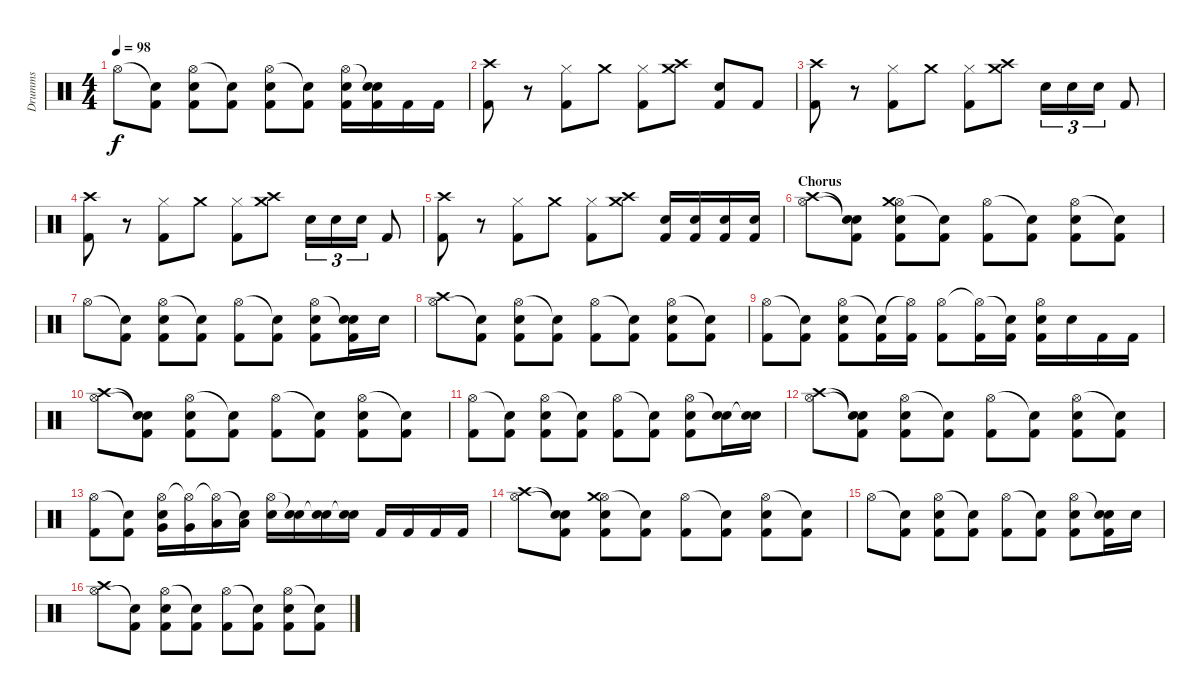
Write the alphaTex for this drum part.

\track ("Drumms" "Drumms") {instrument percussion}
\staff {score}
\articulation defaults
\ts (4 4)
\tempo 98
\clef neutral
\ks c "Hi-Hat (open)".8{dy f volume 13}
("Snare (hit)"{t} "Kick (hit) 2").8 ("Hi-Hat (open)" "Electric Snare (hit)" "Kick (hit) 2").8 ("Snare (hit)"{t} "Kick (hit) 2").8 ("Hi-Hat (open)" "Electric Snare (hit)" "Kick (hit) 2").8 ("Snare (hit)"{t} "Kick (hit) 2").8 ("Hi-Hat (open)" "Electric Snare (hit)" "Kick (hit) 2").16 ("Snare (hit)"{t} "Electric Snare (hit)" "Kick (hit) 2").16 "Kick (hit) 2".16 "Kick (hit) 2".16 |
("Crash high (hit)" "Kick (hit) 2").8 r.8 ("Hi-Hat (closed)" "Kick (hit) 2").8 "Crash medium (hit)".8 ("Hi-Hat (closed)" "Kick (hit) 2").8 ("Crash medium (hit)" "Crash high (hit)").8 ("Electric Snare (hit)" "Kick (hit) 2").8 "Kick (hit) 2".8 |
("Crash high (hit)" "Kick (hit) 2").8 r.8 ("Hi-Hat (closed)" "Kick (hit) 2").8 "Crash medium (hit)".8 ("Hi-Hat (closed)" "Kick (hit) 2").8 ("Crash medium (hit)" "Crash high (hit)").8 "Electric Snare (hit)".16{tu (3 2)} "Electric Snare (hit)".16{tu (3 2)} "Electric Snare (hit)".16{tu (3 2)} "Kick (hit) 2".8 |
("Crash high (hit)" "Kick (hit) 2").8 r.8 ("Hi-Hat (closed)" "Kick (hit) 2").8 "Crash medium (hit)".8 ("Hi-Hat (closed)" "Kick (hit) 2").8 ("Crash medium (hit)" "Crash high (hit)").8 "Electric Snare (hit)".16{tu (3 2)} "Electric Snare (hit)".16{tu (3 2)} "Electric Snare (hit)".16{tu (3 2)} "Kick (hit) 2".8 |
("Crash high (hit)" "Kick (hit) 2").8 r.8 ("Hi-Hat (closed)" "Kick (hit) 2").8 "Crash medium (hit)".8 ("Hi-Hat (closed)" "Kick (hit) 2").8 ("Crash medium (hit)" "Crash high (hit)").8 ("Electric Snare (hit)" "Kick (hit) 2").16 ("Electric Snare (hit)" "Kick (hit) 2").16 ("Electric Snare (hit)" "Kick (hit) 2").16 ("Electric Snare (hit)" "Kick (hit) 2").16 |
\section ("" "Chorus")
("Hi-Hat (open)" "Crash high (hit)").8 ("Snare (hit)"{t} "Snare (hit)"{t} "Kick (hit) 2").8 ("Hi-Hat (open)" "Electric Snare (hit)" "Kick (hit) 2" "Crash medium (hit)").8 ("Snare (hit)"{t} "Kick (hit) 2").8 ("Hi-Hat (open)" "Kick (hit) 2").8 ("Snare (hit)"{t} "Kick (hit) 2").8 ("Hi-Hat (open)" "Electric Snare (hit)" "Kick (hit) 2").8 ("Snare (hit)"{t} "Kick (hit) 2").8 |
"Hi-Hat (open)".8{volume 13} ("Snare (hit)"{t} "Kick (hit) 2").8 ("Hi-Hat (open)" "Electric Snare (hit)" "Kick (hit) 2").8 ("Snare (hit)"{t} "Kick (hit) 2").8 ("Hi-Hat (open)" "Kick (hit) 2").8 ("Snare (hit)"{t} "Kick (hit) 2").8 ("Hi-Hat (open)" "Electric Snare (hit)" "Kick (hit) 2").8 ("Snare (hit)"{t} "Electric Snare (hit)" "Kick (hit) 2").16 "Electric Snare (hit)".16 |
("Hi-Hat (open)" "Crash high (hit)").8{volume 13} ("Snare (hit)"{t} "Kick (hit) 2").8 ("Hi-Hat (open)" "Electric Snare (hit)" "Kick (hit) 2").8 ("Snare (hit)"{t} "Kick (hit) 2").8 ("Hi-Hat (open)" "Kick (hit) 2").8 ("Snare (hit)"{t} "Kick (hit) 2").8 ("Hi-Hat (open)" "Electric Snare (hit)" "Kick (hit) 2").8 ("Snare (hit)"{t} "Kick (hit) 2").8 |
("Hi-Hat (open)" "Kick (hit) 2").8{volume 13} ("Snare (hit)"{t} "Kick (hit) 2").8 ("Hi-Hat (open)" "Electric Snare (hit)" "Kick (hit) 2").8 ("Snare (hit)"{t} "Kick (hit) 2").16 ("Hi-Hat (open)"{t} "Kick (hit) 2").16 ("Hi-Hat (open)" "Kick (hit) 2").8 ("Hi-Hat (open)"{t} "Kick (hit) 2").16 ("Snare (hit)"{t} "Kick (hit) 2").16 ("Hi-Hat (open)" "Electric Snare (hit)" "Kick (hit) 2").16 "Electric Snare (hit)".16 "Kick (hit) 2".16 "Kick (hit) 2".16 |
("Hi-Hat (open)" "Crash high (hit)").8 ("Snare (hit)"{t} "Snare (hit)"{t} "Kick (hit) 2").8 ("Hi-Hat (open)" "Electric Snare (hit)" "Kick (hit) 2").8 ("Snare (hit)"{t} "Kick (hit) 2").8 ("Hi-Hat (open)" "Kick (hit) 2").8 ("Snare (hit)"{t} "Kick (hit) 2").8 ("Hi-Hat (open)" "Electric Snare (hit)" "Kick (hit) 2").8 ("Snare (hit)"{t} "Kick (hit) 2").8 |
("Hi-Hat (open)" "Kick (hit) 2").8{volume 13} ("Snare (hit)"{t} "Kick (hit) 2").8 ("Hi-Hat (open)" "Electric Snare (hit)" "Kick (hit) 2").8 ("Snare (hit)"{t} "Kick (hit) 2").8 ("Hi-Hat (open)" "Kick (hit) 2").8 ("Snare (hit)"{t} "Kick (hit) 2").8 ("Hi-Hat (open)" "Electric Snare (hit)" "Kick (hit) 2").8 ("Snare (hit)"{t} "Electric Snare (hit)").16 ("Snare (hit)"{t} "Electric Snare (hit)").16 |
("Hi-Hat (open)" "Crash high (hit)").8 ("Snare (hit)"{t} "Snare (hit)"{t} "Kick (hit) 2").8 ("Hi-Hat (open)" "Electric Snare (hit)" "Kick (hit) 2").8 ("Snare (hit)"{t} "Kick (hit) 2").8 ("Hi-Hat (open)" "Kick (hit) 2").8 ("Snare (hit)"{t} "Kick (hit) 2").8 ("Hi-Hat (open)" "Electric Snare (hit)" "Kick (hit) 2").8 ("Snare (hit)"{t} "Kick (hit) 2").8 |
("Hi-Hat (open)" "Kick (hit) 2").8{volume 13} ("Snare (hit)"{t} "Kick (hit) 2").8 ("Hi-Hat (open)" "Electric Snare (hit)" "Very Low Tom (hit)").16 ("Hi-Hat (open)"{t} "Very Low Tom (hit)").16 ("Hi-Hat (open)"{t} "Low Tom (hit)").16 ("Snare (hit)"{t} "Low Tom (hit)").16 ("Hi-Hat (open)" "Electric Snare (hit)").16 ("Snare (hit)"{t} "Electric Snare (hit)").16 ("Snare (hit)"{t} "Snare (hit) 2").16 ("Snare (hit)"{t} "Snare (hit) 2").16 "Kick (hit) 2".16 "Kick (hit) 2".16 "Kick (hit) 2".16 "Kick (hit) 2".16 |
("Hi-Hat (open)" "Crash high (hit)").8 ("Snare (hit)"{t} "Snare (hit)"{t} "Kick (hit) 2").8 ("Hi-Hat (open)" "Electric Snare (hit)" "Kick (hit) 2" "Crash medium (hit)").8 ("Snare (hit)"{t} "Kick (hit) 2").8 ("Hi-Hat (open)" "Kick (hit) 2").8 ("Snare (hit)"{t} "Kick (hit) 2").8 ("Hi-Hat (open)" "Electric Snare (hit)" "Kick (hit) 2").8 ("Snare (hit)"{t} "Kick (hit) 2").8 |
"Hi-Hat (open)".8{volume 13} ("Snare (hit)"{t} "Kick (hit) 2").8 ("Hi-Hat (open)" "Electric Snare (hit)" "Kick (hit) 2").8 ("Snare (hit)"{t} "Kick (hit) 2").8 ("Hi-Hat (open)" "Kick (hit) 2").8 ("Snare (hit)"{t} "Kick (hit) 2").8 ("Hi-Hat (open)" "Electric Snare (hit)" "Kick (hit) 2").8 ("Snare (hit)"{t} "Electric Snare (hit)" "Kick (hit) 2").16 "Electric Snare (hit)".16 |
("Hi-Hat (open)" "Crash high (hit)").8{volume 13} ("Snare (hit)"{t} "Kick (hit) 2").8 ("Hi-Hat (open)" "Electric Snare (hit)" "Kick (hit) 2").8 ("Snare (hit)"{t} "Kick (hit) 2").8 ("Hi-Hat (open)" "Kick (hit) 2").8 ("Snare (hit)"{t} "Kick (hit) 2").8 ("Hi-Hat (open)" "Electric Snare (hit)" "Kick (hit) 2").8 ("Snare (hit)"{t} "Kick (hit) 2").8
